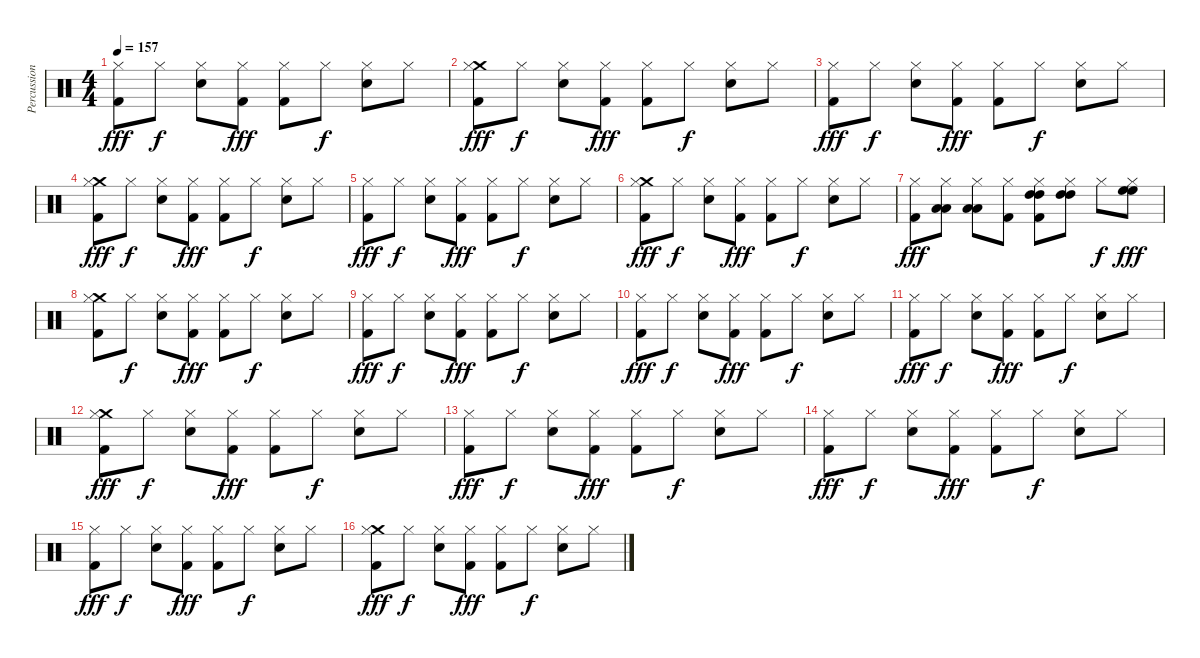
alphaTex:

\track ("Percussioni" "Percussion") {instrument percussion}
\staff {score}
\articulation defaults
\ts (4 4)
\tempo 157
\clef neutral
\ks c
("Hi-Hat (closed)" "Kick (hit) 2").8{dy fff} "Hi-Hat (closed)".8{dy f} ("Hi-Hat (closed)" "Snare (hit) 2").8 ("Hi-Hat (closed)" "Kick (hit) 2").8{dy fff} ("Hi-Hat (closed)" "Kick (hit) 2").8 "Hi-Hat (closed)".8{dy f} ("Hi-Hat (closed)" "Snare (hit) 2").8 "Hi-Hat (closed)".8 |
("Crash medium (hit)" "Hi-Hat (closed)" "Kick (hit) 2").8{dy fff} "Hi-Hat (closed)".8{dy f} ("Hi-Hat (closed)" "Snare (hit) 2").8 ("Hi-Hat (closed)" "Kick (hit) 2").8{dy fff} ("Hi-Hat (closed)" "Kick (hit) 2").8 "Hi-Hat (closed)".8{dy f} ("Hi-Hat (closed)" "Snare (hit) 2").8 "Hi-Hat (closed)".8 |
("Hi-Hat (closed)" "Kick (hit) 2").8{dy fff} "Hi-Hat (closed)".8{dy f} ("Hi-Hat (closed)" "Snare (hit) 2").8 ("Hi-Hat (closed)" "Kick (hit) 2").8{dy fff} ("Hi-Hat (closed)" "Kick (hit) 2").8 "Hi-Hat (closed)".8{dy f} ("Hi-Hat (closed)" "Snare (hit) 2").8 "Hi-Hat (closed)".8 |
("Crash medium (hit)" "Hi-Hat (closed)" "Kick (hit) 2").8{dy fff} "Hi-Hat (closed)".8{dy f} ("Hi-Hat (closed)" "Snare (hit) 2").8 ("Hi-Hat (closed)" "Kick (hit) 2").8{dy fff} ("Hi-Hat (closed)" "Kick (hit) 2").8 "Hi-Hat (closed)".8{dy f} ("Hi-Hat (closed)" "Snare (hit) 2").8 "Hi-Hat (closed)".8 |
("Hi-Hat (closed)" "Kick (hit) 2").8{dy fff} "Hi-Hat (closed)".8{dy f} ("Hi-Hat (closed)" "Snare (hit) 2").8 ("Hi-Hat (closed)" "Kick (hit) 2").8{dy fff} ("Hi-Hat (closed)" "Kick (hit) 2").8 "Hi-Hat (closed)".8{dy f} ("Hi-Hat (closed)" "Snare (hit) 2").8 "Hi-Hat (closed)".8 |
("Crash medium (hit)" "Hi-Hat (closed)" "Kick (hit) 2").8{dy fff} "Hi-Hat (closed)".8{dy f} ("Hi-Hat (closed)" "Snare (hit) 2").8 ("Hi-Hat (closed)" "Kick (hit) 2").8{dy fff} ("Hi-Hat (closed)" "Kick (hit) 2").8 "Hi-Hat (closed)".8{dy f} ("Hi-Hat (closed)" "Snare (hit) 2").8 "Hi-Hat (closed)".8 |
("Hi-Hat (closed)" "Kick (hit) 2").8{dy fff} ("Low Tom (hit)" "Low Tom (hit)" "Hi-Hat (closed)").8 ("Low Tom (hit)" "Low Tom (hit)" "Hi-Hat (closed)").8 ("Hi-Hat (closed)" "Kick (hit) 2").8 ("High Tom (hit)" "High Tom (hit)" "Hi-Hat (closed)" "Kick (hit) 2").8 ("High Tom (hit)" "High Tom (hit)" "Hi-Hat (closed)").8 "Hi-Hat (closed)".8{dy f} ("High Floor Tom (hit)" "High Floor Tom (hit)" "Hi-Hat (closed)").8{dy fff} |
("Crash medium (hit)" "Hi-Hat (closed)" "Kick (hit) 2").8 "Hi-Hat (closed)".8{dy f} ("Hi-Hat (closed)" "Snare (hit) 2").8 ("Hi-Hat (closed)" "Kick (hit) 2").8{dy fff} ("Hi-Hat (closed)" "Kick (hit) 2").8 "Hi-Hat (closed)".8{dy f} ("Hi-Hat (closed)" "Snare (hit) 2").8 "Hi-Hat (closed)".8 |
("Hi-Hat (closed)" "Kick (hit) 2").8{dy fff} "Hi-Hat (closed)".8{dy f} ("Hi-Hat (closed)" "Snare (hit) 2").8 ("Hi-Hat (closed)" "Kick (hit) 2").8{dy fff} ("Hi-Hat (closed)" "Kick (hit) 2").8 "Hi-Hat (closed)".8{dy f} ("Hi-Hat (closed)" "Snare (hit) 2").8 "Hi-Hat (closed)".8 |
("Hi-Hat (closed)" "Kick (hit) 2").8{dy fff} "Hi-Hat (closed)".8{dy f} ("Hi-Hat (closed)" "Snare (hit) 2").8 ("Hi-Hat (closed)" "Kick (hit) 2").8{dy fff} ("Hi-Hat (closed)" "Kick (hit) 2").8 "Hi-Hat (closed)".8{dy f} ("Hi-Hat (closed)" "Snare (hit) 2").8 "Hi-Hat (closed)".8 |
("Hi-Hat (closed)" "Kick (hit) 2").8{dy fff} "Hi-Hat (closed)".8{dy f} ("Hi-Hat (closed)" "Snare (hit) 2").8 ("Hi-Hat (closed)" "Kick (hit) 2").8{dy fff} ("Hi-Hat (closed)" "Kick (hit) 2").8 "Hi-Hat (closed)".8{dy f} ("Hi-Hat (closed)" "Snare (hit) 2").8 "Hi-Hat (closed)".8 |
("Crash medium (hit)" "Hi-Hat (closed)" "Kick (hit) 2").8{dy fff} "Hi-Hat (closed)".8{dy f} ("Hi-Hat (closed)" "Snare (hit) 2").8 ("Hi-Hat (closed)" "Kick (hit) 2").8{dy fff} ("Hi-Hat (closed)" "Kick (hit) 2").8 "Hi-Hat (closed)".8{dy f} ("Hi-Hat (closed)" "Snare (hit) 2").8 "Hi-Hat (closed)".8 |
("Hi-Hat (closed)" "Kick (hit) 2").8{dy fff} "Hi-Hat (closed)".8{dy f} ("Hi-Hat (closed)" "Snare (hit) 2").8 ("Hi-Hat (closed)" "Kick (hit) 2").8{dy fff} ("Hi-Hat (closed)" "Kick (hit) 2").8 "Hi-Hat (closed)".8{dy f} ("Hi-Hat (closed)" "Snare (hit) 2").8 "Hi-Hat (closed)".8 |
("Hi-Hat (closed)" "Kick (hit) 2").8{dy fff} "Hi-Hat (closed)".8{dy f} ("Hi-Hat (closed)" "Snare (hit) 2").8 ("Hi-Hat (closed)" "Kick (hit) 2").8{dy fff} ("Hi-Hat (closed)" "Kick (hit) 2").8 "Hi-Hat (closed)".8{dy f} ("Hi-Hat (closed)" "Snare (hit) 2").8 "Hi-Hat (closed)".8 |
("Hi-Hat (closed)" "Kick (hit) 2").8{dy fff} "Hi-Hat (closed)".8{dy f} ("Hi-Hat (closed)" "Snare (hit) 2").8 ("Hi-Hat (closed)" "Kick (hit) 2").8{dy fff} ("Hi-Hat (closed)" "Kick (hit) 2").8 "Hi-Hat (closed)".8{dy f} ("Hi-Hat (closed)" "Snare (hit) 2").8 "Hi-Hat (closed)".8 |
("Crash medium (hit)" "Hi-Hat (closed)" "Kick (hit) 2").8{dy fff} "Hi-Hat (closed)".8{dy f} ("Hi-Hat (closed)" "Snare (hit) 2").8 ("Hi-Hat (closed)" "Kick (hit) 2").8{dy fff} ("Hi-Hat (closed)" "Kick (hit) 2").8 "Hi-Hat (closed)".8{dy f} ("Hi-Hat (closed)" "Snare (hit) 2").8 "Hi-Hat (closed)".8
